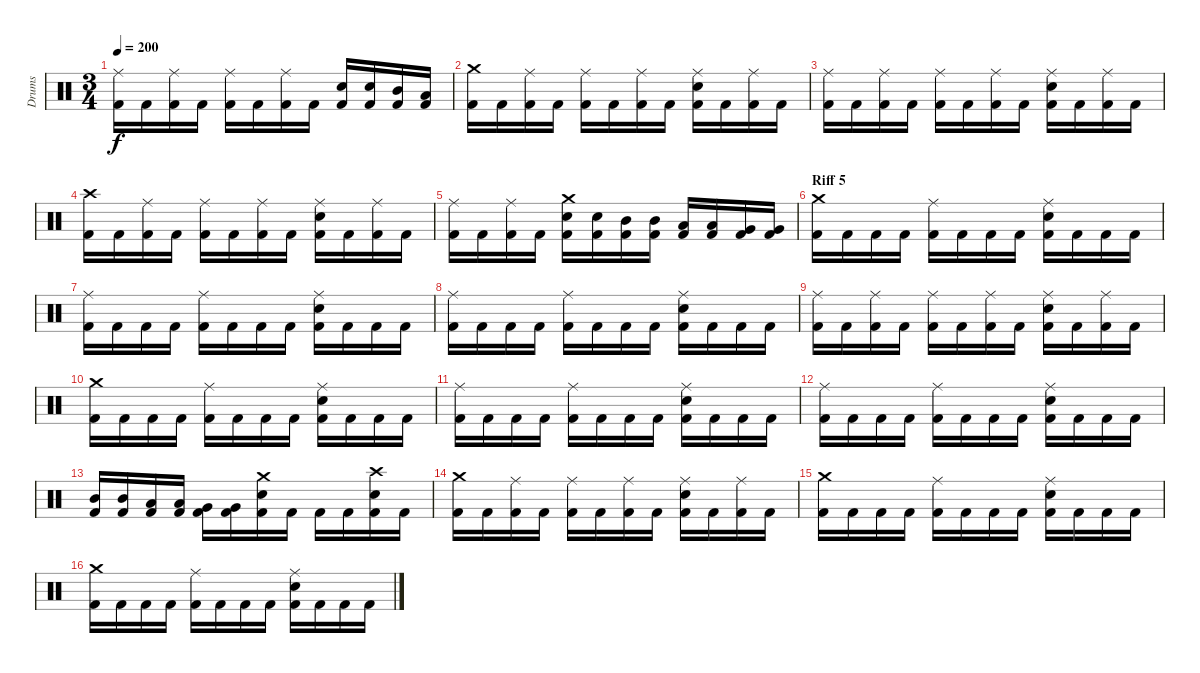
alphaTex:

\track ("Drums" "Drums") {instrument percussion}
\staff {score}
\articulation defaults
\ts (3 4)
\tempo 200
\clef neutral
\ks c
("Ride (middle)" "Kick (hit) 2").16{dy f} "Kick (hit) 2".16 ("Ride (middle)" "Kick (hit) 2").16 "Kick (hit) 2".16 ("Ride (middle)" "Kick (hit) 2").16 "Kick (hit) 2".16 ("Ride (middle)" "Kick (hit) 2").16 "Kick (hit) 2".16 ("Electric Snare (hit)" "Kick (hit) 2").16 ("Electric Snare (hit)" "Kick (hit) 2").16 ("Mid Tom (hit)" "Kick (hit) 2").16 ("Low Tom (hit)" "Kick (hit) 2").16 |
("Crash medium (hit)" "Kick (hit) 2").16 "Kick (hit) 2".16 ("Ride (middle)" "Kick (hit) 2").16 "Kick (hit) 2".16 ("Ride (middle)" "Kick (hit) 2").16 "Kick (hit) 2".16 ("Ride (middle)" "Kick (hit) 2").16 "Kick (hit) 2".16 ("Ride (middle)" "Electric Snare (hit)" "Kick (hit) 2").16 "Kick (hit) 2".16 ("Ride (middle)" "Kick (hit) 2").16 "Kick (hit) 2".16 |
("Ride (middle)" "Kick (hit) 2").16 "Kick (hit) 2".16 ("Ride (middle)" "Kick (hit) 2").16 "Kick (hit) 2".16 ("Ride (middle)" "Kick (hit) 2").16 "Kick (hit) 2".16 ("Ride (middle)" "Kick (hit) 2").16 "Kick (hit) 2".16 ("Ride (middle)" "Electric Snare (hit)" "Kick (hit) 2").16 "Kick (hit) 2".16 ("Ride (middle)" "Kick (hit) 2").16 "Kick (hit) 2".16 |
("Crash high (hit)" "Kick (hit) 2").16 "Kick (hit) 2".16 ("Ride (middle)" "Kick (hit) 2").16 "Kick (hit) 2".16 ("Ride (middle)" "Kick (hit) 2").16 "Kick (hit) 2".16 ("Ride (middle)" "Kick (hit) 2").16 "Kick (hit) 2".16 ("Ride (middle)" "Electric Snare (hit)" "Kick (hit) 2").16 "Kick (hit) 2".16 ("Ride (middle)" "Kick (hit) 2").16 "Kick (hit) 2".16 |
("Ride (middle)" "Kick (hit) 2").16 "Kick (hit) 2".16 ("Ride (middle)" "Kick (hit) 2").16 "Kick (hit) 2".16 ("Crash medium (hit)" "Electric Snare (hit)" "Kick (hit) 2").16 ("Electric Snare (hit)" "Kick (hit) 2").16 ("Mid Tom (hit)" "Kick (hit) 2").16 ("Mid Tom (hit)" "Kick (hit) 2").16 ("Low Tom (hit)" "Kick (hit) 2").16 ("Low Tom (hit)" "Kick (hit) 2").16 ("Very Low Tom (hit)" "Kick (hit) 2").16 ("Very Low Tom (hit)" "Kick (hit) 2").16 |
\section ("" "Riff 5")
("Crash medium (hit)" "Kick (hit) 2").16 "Kick (hit) 2".16 "Kick (hit) 2".16 "Kick (hit) 2".16 ("Ride (middle)" "Kick (hit) 2").16 "Kick (hit) 2".16 "Kick (hit) 2".16 "Kick (hit) 2".16 ("Ride (middle)" "Electric Snare (hit)" "Kick (hit) 2").16 "Kick (hit) 2".16 "Kick (hit) 2".16 "Kick (hit) 2".16 |
("Ride (middle)" "Kick (hit) 2").16 "Kick (hit) 2".16 "Kick (hit) 2".16 "Kick (hit) 2".16 ("Ride (middle)" "Kick (hit) 2").16 "Kick (hit) 2".16 "Kick (hit) 2".16 "Kick (hit) 2".16 ("Ride (middle)" "Electric Snare (hit)" "Kick (hit) 2").16 "Kick (hit) 2".16 "Kick (hit) 2".16 "Kick (hit) 2".16 |
("Ride (middle)" "Kick (hit) 2").16 "Kick (hit) 2".16 "Kick (hit) 2".16 "Kick (hit) 2".16 ("Ride (middle)" "Kick (hit) 2").16 "Kick (hit) 2".16 "Kick (hit) 2".16 "Kick (hit) 2".16 ("Ride (middle)" "Electric Snare (hit)" "Kick (hit) 2").16 "Kick (hit) 2".16 "Kick (hit) 2".16 "Kick (hit) 2".16 |
("Ride (middle)" "Kick (hit) 2").16 "Kick (hit) 2".16 ("Ride (middle)" "Kick (hit) 2").16 "Kick (hit) 2".16 ("Ride (middle)" "Kick (hit) 2").16 "Kick (hit) 2".16 ("Ride (middle)" "Kick (hit) 2").16 "Kick (hit) 2".16 ("Ride (middle)" "Electric Snare (hit)" "Kick (hit) 2").16 "Kick (hit) 2".16 ("Ride (middle)" "Kick (hit) 2").16 "Kick (hit) 2".16 |
("Crash medium (hit)" "Kick (hit) 2").16 "Kick (hit) 2".16 "Kick (hit) 2".16 "Kick (hit) 2".16 ("Ride (middle)" "Kick (hit) 2").16 "Kick (hit) 2".16 "Kick (hit) 2".16 "Kick (hit) 2".16 ("Ride (middle)" "Electric Snare (hit)" "Kick (hit) 2").16 "Kick (hit) 2".16 "Kick (hit) 2".16 "Kick (hit) 2".16 |
("Ride (middle)" "Kick (hit) 2").16 "Kick (hit) 2".16 "Kick (hit) 2".16 "Kick (hit) 2".16 ("Ride (middle)" "Kick (hit) 2").16 "Kick (hit) 2".16 "Kick (hit) 2".16 "Kick (hit) 2".16 ("Ride (middle)" "Electric Snare (hit)" "Kick (hit) 2").16 "Kick (hit) 2".16 "Kick (hit) 2".16 "Kick (hit) 2".16 |
("Ride (middle)" "Kick (hit) 2").16 "Kick (hit) 2".16 "Kick (hit) 2".16 "Kick (hit) 2".16 ("Ride (middle)" "Kick (hit) 2").16 "Kick (hit) 2".16 "Kick (hit) 2".16 "Kick (hit) 2".16 ("Ride (middle)" "Electric Snare (hit)" "Kick (hit) 2").16 "Kick (hit) 2".16 "Kick (hit) 2".16 "Kick (hit) 2".16 |
("Mid Tom (hit)" "Kick (hit) 2").16 ("Mid Tom (hit)" "Kick (hit) 2").16 ("Low Tom (hit)" "Kick (hit) 2").16 ("Low Tom (hit)" "Kick (hit) 2").16 ("Very Low Tom (hit)" "Kick (hit) 2").16 ("Very Low Tom (hit)" "Kick (hit) 2").16 ("Crash medium (hit)" "Electric Snare (hit)" "Kick (hit) 2").16 "Kick (hit) 2".16 "Kick (hit) 2".16 "Kick (hit) 2".16 ("Crash high (hit)" "Electric Snare (hit)" "Kick (hit) 2").16 "Kick (hit) 2".16 |
("Crash medium (hit)" "Kick (hit) 2").16 "Kick (hit) 2".16 ("Ride (middle)" "Kick (hit) 2").16 "Kick (hit) 2".16 ("Ride (middle)" "Kick (hit) 2").16 "Kick (hit) 2".16 ("Ride (middle)" "Kick (hit) 2").16 "Kick (hit) 2".16 ("Ride (middle)" "Electric Snare (hit)" "Kick (hit) 2").16 "Kick (hit) 2".16 ("Ride (middle)" "Kick (hit) 2").16 "Kick (hit) 2".16 |
("Crash medium (hit)" "Kick (hit) 2").16 "Kick (hit) 2".16 "Kick (hit) 2".16 "Kick (hit) 2".16 ("Ride (middle)" "Kick (hit) 2").16 "Kick (hit) 2".16 "Kick (hit) 2".16 "Kick (hit) 2".16 ("Ride (middle)" "Electric Snare (hit)" "Kick (hit) 2").16 "Kick (hit) 2".16 "Kick (hit) 2".16 "Kick (hit) 2".16 |
("Crash medium (hit)" "Kick (hit) 2").16 "Kick (hit) 2".16 "Kick (hit) 2".16 "Kick (hit) 2".16 ("Ride (middle)" "Kick (hit) 2").16 "Kick (hit) 2".16 "Kick (hit) 2".16 "Kick (hit) 2".16 ("Ride (middle)" "Electric Snare (hit)" "Kick (hit) 2").16 "Kick (hit) 2".16 "Kick (hit) 2".16 "Kick (hit) 2".16
